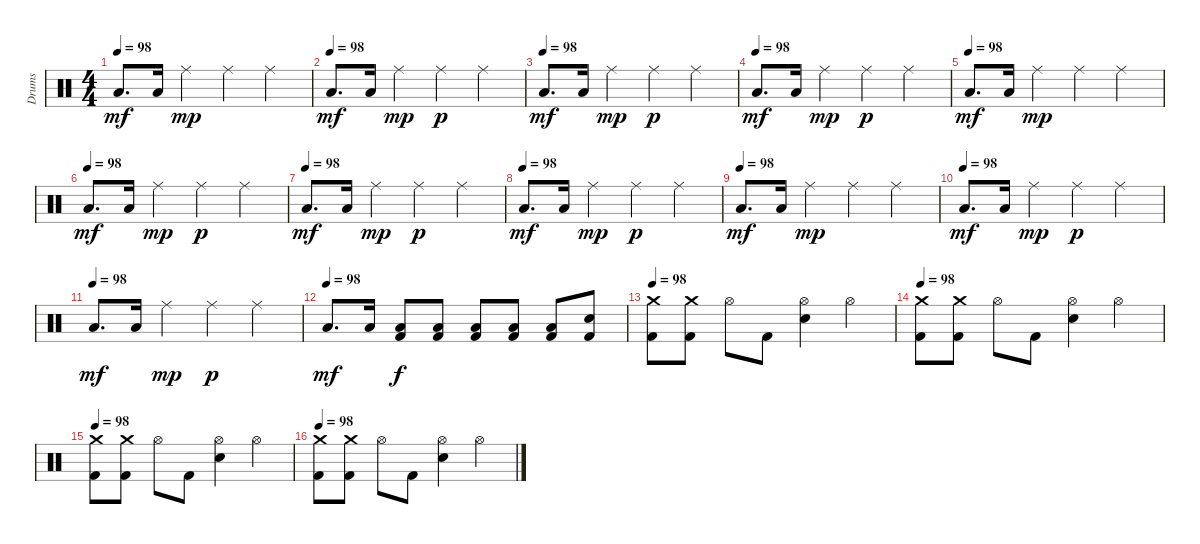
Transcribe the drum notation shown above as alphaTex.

\track ("Drums" "Drums") {instrument percussion}
\staff {score}
\articulation defaults
\ts (4 4)
\tempo 98
\clef neutral
\ks c "Low Tom (hit)".8{d dy mf} "Low Tom (hit)".16 "Ride (middle)".4{dy mp} "Ride (middle)".4 "Ride (middle)".4
|
\tempo (98)
"Low Tom (hit)".8{d dy mf} "Low Tom (hit)".16 "Ride (middle)".4{dy mp} "Ride (middle)".4{dy p} "Ride (middle)".4 |
\tempo (98)
"Low Tom (hit)".8{d dy mf} "Low Tom (hit)".16 "Ride (middle)".4{dy mp} "Ride (middle)".4{dy p} "Ride (middle)".4 |
\tempo (98)
"Low Tom (hit)".8{d dy mf} "Low Tom (hit)".16 "Ride (middle)".4{dy mp} "Ride (middle)".4{dy p} "Ride (middle)".4 |
\tempo (98)
"Low Tom (hit)".8{d dy mf} "Low Tom (hit)".16 "Ride (middle)".4{dy mp} "Ride (middle)".4 "Ride (middle)".4 |
\tempo (98)
"Low Tom (hit)".8{d dy mf} "Low Tom (hit)".16 "Ride (middle)".4{dy mp} "Ride (middle)".4{dy p} "Ride (middle)".4 |
\tempo (98)
"Low Tom (hit)".8{d dy mf} "Low Tom (hit)".16 "Ride (middle)".4{dy mp} "Ride (middle)".4{dy p} "Ride (middle)".4 |
\tempo (98)
"Low Tom (hit)".8{d dy mf} "Low Tom (hit)".16 "Ride (middle)".4{dy mp} "Ride (middle)".4{dy p} "Ride (middle)".4 |
\tempo (98)
"Low Tom (hit)".8{d dy mf} "Low Tom (hit)".16 "Ride (middle)".4{dy mp} "Ride (middle)".4 "Ride (middle)".4 |
\tempo (98)
"Low Tom (hit)".8{d dy mf} "Low Tom (hit)".16 "Ride (middle)".4{dy mp} "Ride (middle)".4{dy p} "Ride (middle)".4 |
\tempo (98)
"Low Tom (hit)".8{d dy mf} "Low Tom (hit)".16 "Ride (middle)".4{dy mp} "Ride (middle)".4{dy p} "Ride (middle)".4 |
\tempo (98)
"Low Tom (hit)".8{d dy mf} "Low Tom (hit)".16 ("Kick (hit) 2" "Low Tom (hit)").8{dy f} ("Kick (hit) 2" "Low Tom (hit)").8 ("Kick (hit) 2" "Low Tom (hit)").8 ("Kick (hit) 2" "Low Tom (hit)").8 ("Kick (hit) 2" "Low Tom (hit)").8 ("Kick (hit) 2" "Electric Snare (hit)").8 |
\tempo 98
("Kick (hit) 2" "Crash medium (hit)").8 ("Kick (hit) 2" "Crash medium (hit)").8 "Hi-Hat (open)".8 "Kick (hit) 2".8 ("Electric Snare (hit)" "Hi-Hat (open)").4 "Hi-Hat (open)".4 |
\tempo 98
("Kick (hit) 2" "Crash medium (hit)").8 ("Kick (hit) 2" "Crash medium (hit)").8 "Hi-Hat (open)".8 "Kick (hit) 2".8 ("Electric Snare (hit)" "Hi-Hat (open)").4 "Hi-Hat (open)".4 |
\tempo 98
("Kick (hit) 2" "Crash medium (hit)").8 ("Kick (hit) 2" "Crash medium (hit)").8 "Hi-Hat (open)".8 "Kick (hit) 2".8 ("Electric Snare (hit)" "Hi-Hat (open)").4 "Hi-Hat (open)".4 |
\tempo 98
("Kick (hit) 2" "Crash medium (hit)").8 ("Kick (hit) 2" "Crash medium (hit)").8 "Hi-Hat (open)".8 "Kick (hit) 2".8 ("Electric Snare (hit)" "Hi-Hat (open)").4 "Hi-Hat (open)".4
